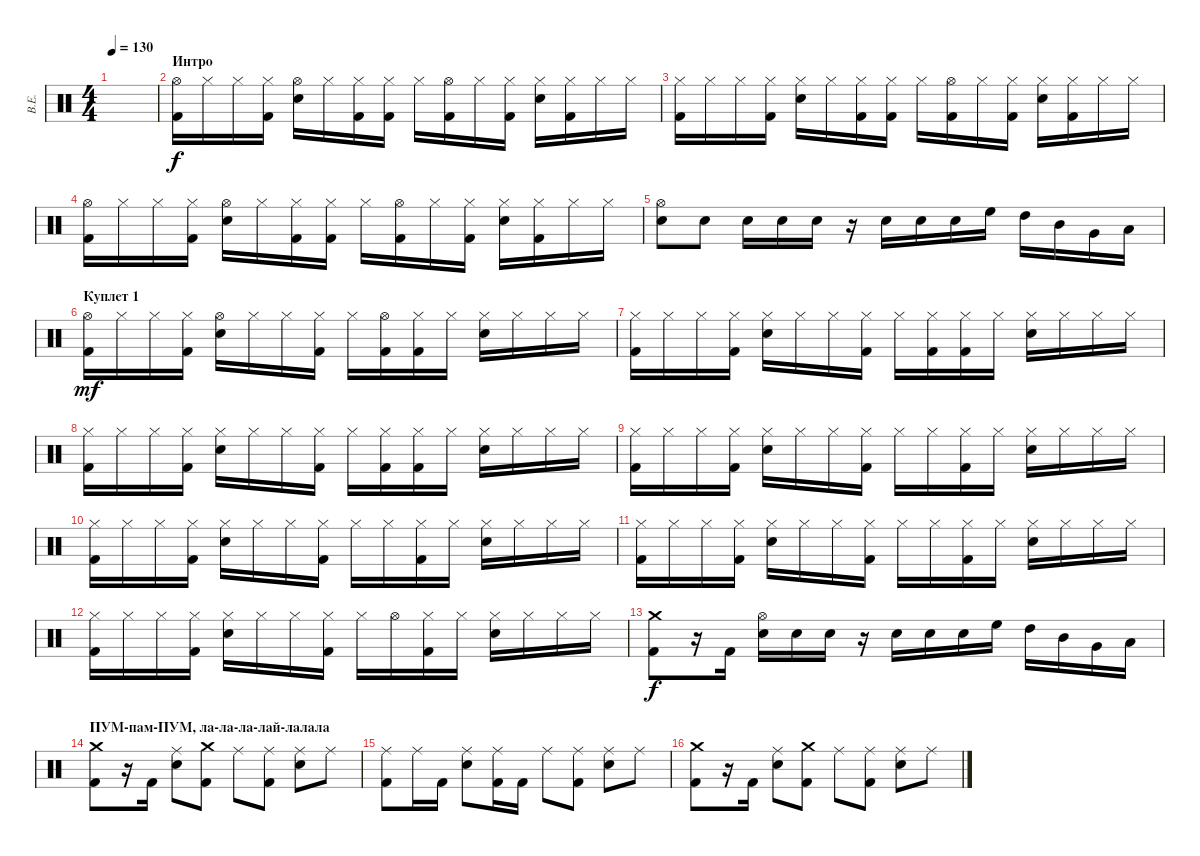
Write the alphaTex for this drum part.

\track ("В.Е." "В.Е.") {instrument percussion}
\staff {score}
\articulation defaults
\ts (4 4)
\tempo 130
\clef neutral
\ks c
|
\section ("" "Интро")
("Hi-Hat (open)" "Kick (hit) 2").16 "Hi-Hat (closed)".16 "Hi-Hat (closed)".16 ("Hi-Hat (closed)" "Kick (hit) 2").16 ("Hi-Hat (open)" "Electric Snare (hit)").16 "Hi-Hat (closed)".16 ("Hi-Hat (closed)" "Kick (hit) 2").16 ("Hi-Hat (closed)" "Kick (hit) 2").16 "Hi-Hat (closed)".16 ("Hi-Hat (open)" "Kick (hit) 2").16 "Hi-Hat (closed)".16 ("Hi-Hat (closed)" "Kick (hit) 2").16 ("Hi-Hat (closed)" "Electric Snare (hit)").16 ("Hi-Hat (closed)" "Kick (hit) 2").16 "Hi-Hat (closed)".16 "Hi-Hat (closed)".16 |
("Hi-Hat (closed)" "Kick (hit) 2").16 "Hi-Hat (closed)".16 "Hi-Hat (closed)".16 ("Hi-Hat (closed)" "Kick (hit) 2").16 ("Hi-Hat (closed)" "Electric Snare (hit)").16 "Hi-Hat (closed)".16 ("Hi-Hat (closed)" "Kick (hit) 2").16 ("Hi-Hat (closed)" "Kick (hit) 2").16 "Hi-Hat (closed)".16 ("Hi-Hat (open)" "Kick (hit) 2").16 "Hi-Hat (closed)".16 ("Hi-Hat (closed)" "Kick (hit) 2").16 ("Hi-Hat (closed)" "Electric Snare (hit)").16 ("Hi-Hat (closed)" "Kick (hit) 2").16 "Hi-Hat (closed)".16 "Hi-Hat (closed)".16 |
("Hi-Hat (open)" "Kick (hit) 2").16 "Hi-Hat (closed)".16 "Hi-Hat (closed)".16 ("Hi-Hat (closed)" "Kick (hit) 2").16 ("Hi-Hat (open)" "Electric Snare (hit)").16 "Hi-Hat (closed)".16 ("Hi-Hat (closed)" "Kick (hit) 2").16 ("Hi-Hat (closed)" "Kick (hit) 2").16 "Hi-Hat (closed)".16 ("Hi-Hat (open)" "Kick (hit) 2").16 "Hi-Hat (closed)".16 ("Hi-Hat (closed)" "Kick (hit) 2").16 ("Hi-Hat (closed)" "Electric Snare (hit)").16 ("Hi-Hat (closed)" "Kick (hit) 2").16 "Hi-Hat (closed)".16 "Hi-Hat (closed)".16 |
("Electric Snare (hit)" "Hi-Hat (open)").8 "Electric Snare (hit)".8 "Electric Snare (hit)".16 "Electric Snare (hit)".16 "Electric Snare (hit)".16 r.16 "Electric Snare (hit)".16 "Electric Snare (hit)".16 "Electric Snare (hit)".16 "High Floor Tom (hit)".16 "High Tom (hit)".16 "Mid Tom (hit)".16 "Very Low Tom (hit)".16 "Low Floor Tom (hit)".16 |
\section ("" "Куплет 1")
("Hi-Hat (open)" "Kick (hit) 2").16{dy mf} "Hi-Hat (closed)".16 "Hi-Hat (closed)".16 ("Hi-Hat (closed)" "Kick (hit) 2").16 ("Hi-Hat (open)" "Electric Snare (hit)").16 "Hi-Hat (closed)".16 "Hi-Hat (closed)".16 ("Hi-Hat (closed)" "Kick (hit) 2").16 "Hi-Hat (closed)".16 ("Hi-Hat (open)" "Kick (hit) 2").16 ("Hi-Hat (closed)" "Kick (hit) 2").16 "Hi-Hat (closed)".16 ("Hi-Hat (closed)" "Electric Snare (hit)").16 "Hi-Hat (closed)".16 "Hi-Hat (closed)".16 "Hi-Hat (closed)".16 |
("Hi-Hat (closed)" "Kick (hit) 2").16 "Hi-Hat (closed)".16 "Hi-Hat (closed)".16 ("Hi-Hat (closed)" "Kick (hit) 2").16 ("Hi-Hat (closed)" "Electric Snare (hit)").16 "Hi-Hat (closed)".16 "Hi-Hat (closed)".16 ("Hi-Hat (closed)" "Kick (hit) 2").16 "Hi-Hat (closed)".16 ("Hi-Hat (closed)" "Kick (hit) 2").16 ("Hi-Hat (closed)" "Kick (hit) 2").16 "Hi-Hat (closed)".16 ("Hi-Hat (closed)" "Electric Snare (hit)").16 "Hi-Hat (closed)".16 "Hi-Hat (closed)".16 "Hi-Hat (closed)".16 |
("Hi-Hat (closed)" "Kick (hit) 2").16 "Hi-Hat (closed)".16 "Hi-Hat (closed)".16 ("Hi-Hat (closed)" "Kick (hit) 2").16 ("Hi-Hat (closed)" "Electric Snare (hit)").16 "Hi-Hat (closed)".16 "Hi-Hat (closed)".16 ("Hi-Hat (closed)" "Kick (hit) 2").16 "Hi-Hat (closed)".16 ("Hi-Hat (closed)" "Kick (hit) 2").16 ("Hi-Hat (closed)" "Kick (hit) 2").16 "Hi-Hat (closed)".16 ("Hi-Hat (closed)" "Electric Snare (hit)").16 "Hi-Hat (closed)".16 "Hi-Hat (closed)".16 "Hi-Hat (closed)".16 |
("Hi-Hat (closed)" "Kick (hit) 2").16 "Hi-Hat (closed)".16 "Hi-Hat (closed)".16 ("Hi-Hat (closed)" "Kick (hit) 2").16 ("Hi-Hat (closed)" "Electric Snare (hit)").16 "Hi-Hat (closed)".16 "Hi-Hat (closed)".16 ("Hi-Hat (closed)" "Kick (hit) 2").16 "Hi-Hat (closed)".16 "Hi-Hat (closed)".16 ("Hi-Hat (closed)" "Kick (hit) 2").16 "Hi-Hat (closed)".16 ("Hi-Hat (closed)" "Electric Snare (hit)").16 "Hi-Hat (closed)".16 "Hi-Hat (closed)".16 "Hi-Hat (closed)".16 |
("Hi-Hat (closed)" "Kick (hit) 2").16 "Hi-Hat (closed)".16 "Hi-Hat (closed)".16 ("Hi-Hat (closed)" "Kick (hit) 2").16 ("Hi-Hat (closed)" "Electric Snare (hit)").16 "Hi-Hat (closed)".16 "Hi-Hat (closed)".16 ("Hi-Hat (closed)" "Kick (hit) 2").16 "Hi-Hat (closed)".16 "Hi-Hat (closed)".16 ("Hi-Hat (closed)" "Kick (hit) 2").16 "Hi-Hat (closed)".16 ("Hi-Hat (closed)" "Electric Snare (hit)").16 "Hi-Hat (closed)".16 "Hi-Hat (closed)".16 "Hi-Hat (closed)".16 |
("Hi-Hat (closed)" "Kick (hit) 2").16 "Hi-Hat (closed)".16 "Hi-Hat (closed)".16 ("Hi-Hat (closed)" "Kick (hit) 2").16 ("Hi-Hat (closed)" "Electric Snare (hit)").16 "Hi-Hat (closed)".16 "Hi-Hat (closed)".16 ("Hi-Hat (closed)" "Kick (hit) 2").16 "Hi-Hat (closed)".16 "Hi-Hat (closed)".16 ("Hi-Hat (closed)" "Kick (hit) 2").16 "Hi-Hat (closed)".16 ("Hi-Hat (closed)" "Electric Snare (hit)").16 "Hi-Hat (closed)".16 "Hi-Hat (closed)".16 "Hi-Hat (closed)".16 |
("Hi-Hat (closed)" "Kick (hit) 2").16 "Hi-Hat (closed)".16 "Hi-Hat (closed)".16 ("Hi-Hat (closed)" "Kick (hit) 2").16 ("Hi-Hat (closed)" "Electric Snare (hit)").16 "Hi-Hat (closed)".16 "Hi-Hat (closed)".16 ("Hi-Hat (closed)" "Kick (hit) 2").16 "Hi-Hat (closed)".16 "Hi-Hat (open)".16 ("Hi-Hat (closed)" "Kick (hit) 2").16 "Hi-Hat (closed)".16 ("Hi-Hat (closed)" "Electric Snare (hit)").16 "Hi-Hat (closed)".16 "Hi-Hat (closed)".16 "Hi-Hat (closed)".16 |
("Kick (hit) 2" "Crash medium (hit)").8{dy f} r.16 "Kick (hit) 2".16 ("Electric Snare (hit)" "Hi-Hat (open)").16 "Electric Snare (hit)".16 "Electric Snare (hit)".16 r.16 "Electric Snare (hit)".16 "Electric Snare (hit)".16 "Electric Snare (hit)".16 "High Floor Tom (hit)".16 "High Tom (hit)".16 "Mid Tom (hit)".16 "Very Low Tom (hit)".16 "Low Floor Tom (hit)".16 |
\section ("" "ПУМ-пам-ПУМ, ла-ла-ла-лай-лалала")
("Kick (hit) 2" "Crash medium (hit)").8 r.16 "Kick (hit) 2".16 ("Electric Snare (hit)" "Ride (middle)").8 ("Kick (hit) 2" "Crash medium (hit)").8 "Ride (middle)".8 ("Kick (hit) 2" "Ride (middle)").8 ("Electric Snare (hit)" "Ride (middle)").8 "Ride (middle)".8 |
("Kick (hit) 2" "Ride (middle)").8 "Ride (middle)".16 "Kick (hit) 2".16 ("Electric Snare (hit)" "Ride (middle)").8 ("Kick (hit) 2" "Ride (middle)").16 "Kick (hit) 2".16 "Ride (middle)".8 ("Kick (hit) 2" "Ride (middle)").8 ("Electric Snare (hit)" "Ride (middle)").8 "Ride (middle)".8 |
("Kick (hit) 2" "Crash medium (hit)").8 r.16 "Kick (hit) 2".16 ("Electric Snare (hit)" "Ride (middle)").8 ("Kick (hit) 2" "Crash medium (hit)").8 "Ride (middle)".8 ("Kick (hit) 2" "Ride (middle)").8 ("Electric Snare (hit)" "Ride (middle)").8 "Ride (middle)".8
